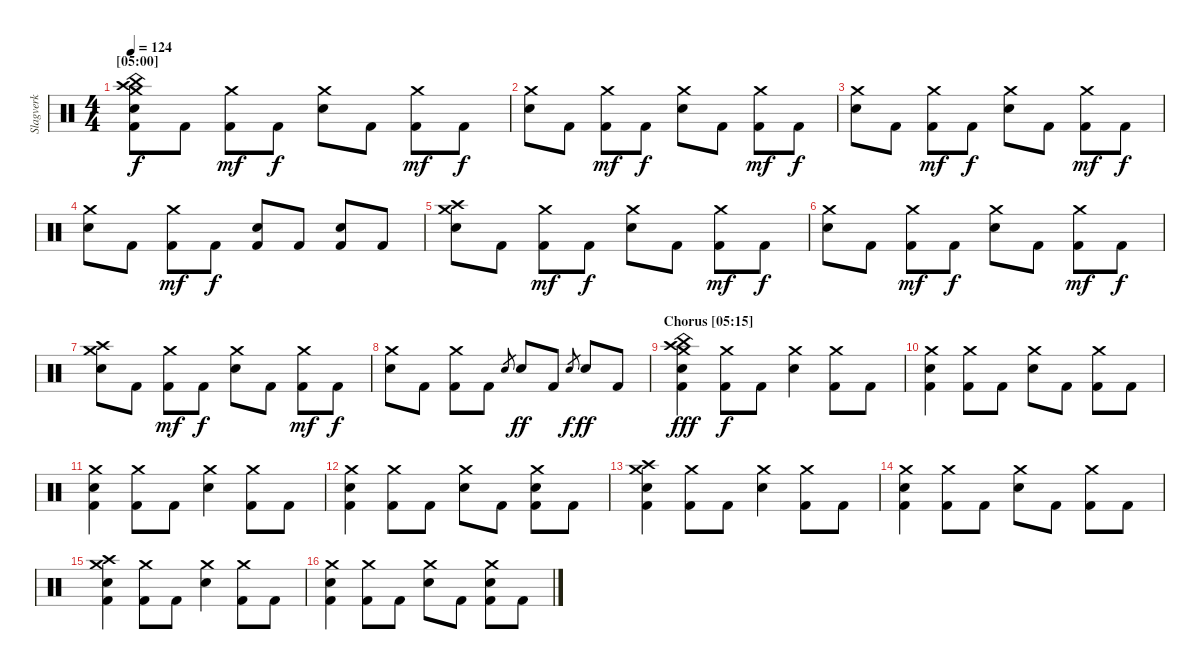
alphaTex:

\track ("Slagverk" "Slagverk") {instrument percussion}
\staff {score}
\articulation defaults
\ts (4 4)
\section ("" "[05:00]")
\tempo 124
\clef neutral
\ks c
("Crash medium (hit)" "Crash high (hit)" "China (hit)" "Electric Snare (hit)" "Kick (hit) 2").8{dy f} "Kick (hit) 2".8 ("Crash medium (hit)" "Kick (hit) 2").8{dy mf} "Kick (hit) 2".8{dy f} ("Crash medium (hit)" "Electric Snare (hit)").8 "Kick (hit) 2".8 ("Crash medium (hit)" "Kick (hit) 2").8{dy mf} "Kick (hit) 2".8{dy f} |
("Crash medium (hit)" "Electric Snare (hit)").8 "Kick (hit) 2".8 ("Crash medium (hit)" "Kick (hit) 2").8{dy mf} "Kick (hit) 2".8{dy f} ("Crash medium (hit)" "Electric Snare (hit)").8 "Kick (hit) 2".8 ("Crash medium (hit)" "Kick (hit) 2").8{dy mf} "Kick (hit) 2".8{dy f} |
("Crash medium (hit)" "Electric Snare (hit)").8 "Kick (hit) 2".8 ("Crash medium (hit)" "Kick (hit) 2").8{dy mf} "Kick (hit) 2".8{dy f} ("Crash medium (hit)" "Electric Snare (hit)").8 "Kick (hit) 2".8 ("Crash medium (hit)" "Kick (hit) 2").8{dy mf} "Kick (hit) 2".8{dy f} |
("Crash medium (hit)" "Electric Snare (hit)").8 "Kick (hit) 2".8 ("Crash medium (hit)" "Kick (hit) 2").8{dy mf} "Kick (hit) 2".8{dy f} ("Electric Snare (hit)" "Kick (hit) 2").8 "Kick (hit) 2".8 ("Electric Snare (hit)" "Kick (hit) 2").8 "Kick (hit) 2".8 |
("Crash medium (hit)" "Crash high (hit)" "Electric Snare (hit)").8 "Kick (hit) 2".8 ("Crash medium (hit)" "Kick (hit) 2").8{dy mf} "Kick (hit) 2".8{dy f} ("Crash medium (hit)" "Electric Snare (hit)").8 "Kick (hit) 2".8 ("Crash medium (hit)" "Kick (hit) 2").8{dy mf} "Kick (hit) 2".8{dy f} |
("Crash medium (hit)" "Electric Snare (hit)").8 "Kick (hit) 2".8 ("Crash medium (hit)" "Kick (hit) 2").8{dy mf} "Kick (hit) 2".8{dy f} ("Crash medium (hit)" "Electric Snare (hit)").8 "Kick (hit) 2".8 ("Crash medium (hit)" "Kick (hit) 2").8{dy mf} "Kick (hit) 2".8{dy f} |
("Crash medium (hit)" "Crash high (hit)" "Electric Snare (hit)").8 "Kick (hit) 2".8 ("Crash medium (hit)" "Kick (hit) 2").8{dy mf} "Kick (hit) 2".8{dy f} ("Crash medium (hit)" "Electric Snare (hit)").8 "Kick (hit) 2".8 ("Crash medium (hit)" "Kick (hit) 2").8{dy mf} "Kick (hit) 2".8{dy f} |
("Crash medium (hit)" "Electric Snare (hit)").8 "Kick (hit) 2".8 ("Crash medium (hit)" "Kick (hit) 2").8 "Kick (hit) 2".8 "Electric Snare (hit)".8{gr} "Electric Snare (hit)".8{dy ff} "Kick (hit) 2".8 "Electric Snare (hit)".8{gr dy f} "Electric Snare (hit)".8{dy ff} "Kick (hit) 2".8 |
\section ("" "Chorus [05:15]")
("Crash medium (hit)" "Crash high (hit)" "China (hit)" "Electric Snare (hit)" "Kick (hit) 2").4{dy fff} ("Crash medium (hit)" "Kick (hit) 2").8{dy f} "Kick (hit) 2".8 ("Crash medium (hit)" "Electric Snare (hit)").4 ("Crash medium (hit)" "Kick (hit) 2").8 "Kick (hit) 2".8 |
("Crash medium (hit)" "Electric Snare (hit)" "Kick (hit) 2").4 ("Crash medium (hit)" "Kick (hit) 2").8 "Kick (hit) 2".8 ("Crash medium (hit)" "Electric Snare (hit)").8 "Kick (hit) 2".8 ("Crash medium (hit)" "Kick (hit) 2").8 "Kick (hit) 2".8 |
("Crash medium (hit)" "Electric Snare (hit)" "Kick (hit) 2").4 ("Crash medium (hit)" "Kick (hit) 2").8 "Kick (hit) 2".8 ("Crash medium (hit)" "Electric Snare (hit)").4 ("Crash medium (hit)" "Kick (hit) 2").8 "Kick (hit) 2".8 |
("Crash medium (hit)" "Electric Snare (hit)" "Kick (hit) 2").4 ("Crash medium (hit)" "Kick (hit) 2").8 "Kick (hit) 2".8 ("Crash medium (hit)" "Electric Snare (hit)").8 "Kick (hit) 2".8 ("Crash medium (hit)" "Electric Snare (hit)" "Kick (hit) 2").8 "Kick (hit) 2".8 |
("Crash medium (hit)" "Crash high (hit)" "Electric Snare (hit)" "Kick (hit) 2").4 ("Crash medium (hit)" "Kick (hit) 2").8 "Kick (hit) 2".8 ("Crash medium (hit)" "Electric Snare (hit)").4 ("Crash medium (hit)" "Kick (hit) 2").8 "Kick (hit) 2".8 |
("Crash medium (hit)" "Electric Snare (hit)" "Kick (hit) 2").4 ("Crash medium (hit)" "Kick (hit) 2").8 "Kick (hit) 2".8 ("Crash medium (hit)" "Electric Snare (hit)").8 "Kick (hit) 2".8 ("Crash medium (hit)" "Kick (hit) 2").8 "Kick (hit) 2".8 |
("Crash medium (hit)" "Crash high (hit)" "Electric Snare (hit)" "Kick (hit) 2").4 ("Crash medium (hit)" "Kick (hit) 2").8 "Kick (hit) 2".8 ("Crash medium (hit)" "Electric Snare (hit)").4 ("Crash medium (hit)" "Kick (hit) 2").8 "Kick (hit) 2".8 |
("Crash medium (hit)" "Electric Snare (hit)" "Kick (hit) 2").4 ("Crash medium (hit)" "Kick (hit) 2").8 "Kick (hit) 2".8 ("Crash medium (hit)" "Electric Snare (hit)").8 "Kick (hit) 2".8 ("Crash medium (hit)" "Electric Snare (hit)" "Kick (hit) 2").8 "Kick (hit) 2".8
